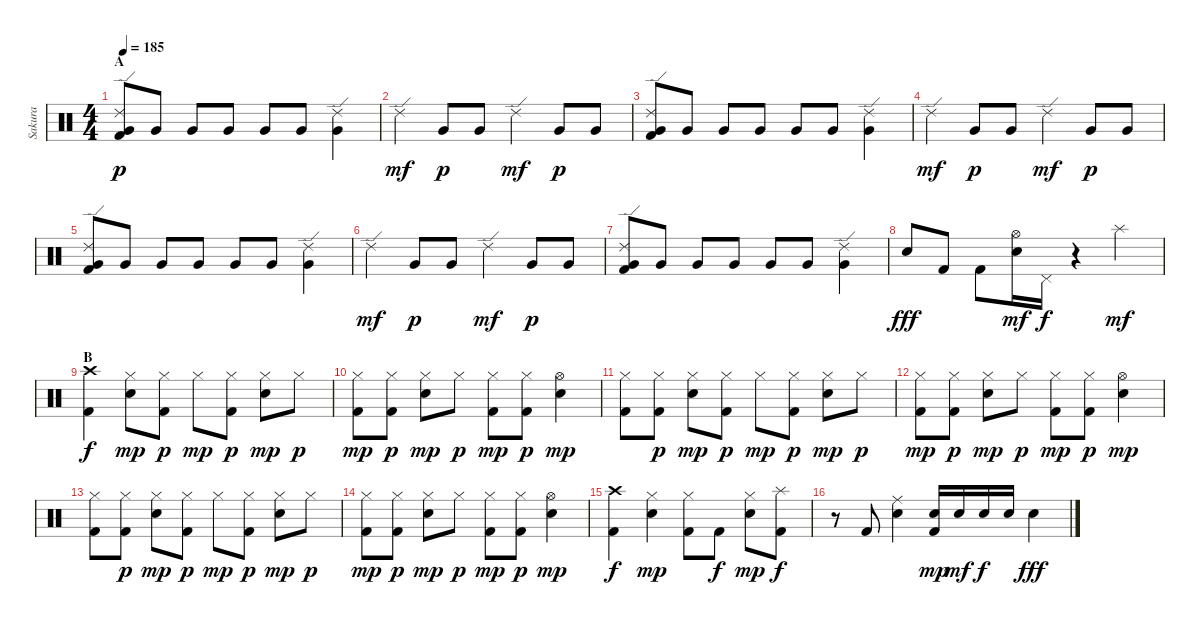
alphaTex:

\track ("Sakura" "Sakura") {instrument percussion}
\staff {score}
\articulation defaults
\ts (4 4)
\section ("" "A")
\tempo 185
\clef neutral
\ks c
("Ride (edge) 2" "Very Low Tom (hit)" "Kick (hit) 2").8{dy p} "Very Low Tom (hit)".8 "Very Low Tom (hit)".8 "Very Low Tom (hit)".8 "Very Low Tom (hit)".8 "Very Low Tom (hit)".8 ("Ride (edge) 2" "Very Low Tom (hit)").4 |
"Ride (edge) 2".4{dy mf} "Very Low Tom (hit)".8{dy p} "Very Low Tom (hit)".8 "Ride (edge) 2".4{dy mf} "Very Low Tom (hit)".8{dy p} "Very Low Tom (hit)".8 |
("Ride (edge) 2" "Very Low Tom (hit)" "Kick (hit) 2").8 "Very Low Tom (hit)".8 "Very Low Tom (hit)".8 "Very Low Tom (hit)".8 "Very Low Tom (hit)".8 "Very Low Tom (hit)".8 ("Ride (edge) 2" "Very Low Tom (hit)").4 |
"Ride (edge) 2".4{dy mf} "Very Low Tom (hit)".8{dy p} "Very Low Tom (hit)".8 "Ride (edge) 2".4{dy mf} "Very Low Tom (hit)".8{dy p} "Very Low Tom (hit)".8 |
("Ride (edge) 2" "Very Low Tom (hit)" "Kick (hit) 2").8 "Very Low Tom (hit)".8 "Very Low Tom (hit)".8 "Very Low Tom (hit)".8 "Very Low Tom (hit)".8 "Very Low Tom (hit)".8 ("Ride (edge) 2" "Very Low Tom (hit)").4 |
"Ride (edge) 2".4{dy mf} "Very Low Tom (hit)".8{dy p} "Very Low Tom (hit)".8 "Ride (edge) 2".4{dy mf} "Very Low Tom (hit)".8{dy p} "Very Low Tom (hit)".8 |
("Ride (edge) 2" "Very Low Tom (hit)" "Kick (hit) 2").8 "Very Low Tom (hit)".8 "Very Low Tom (hit)".8 "Very Low Tom (hit)".8 "Very Low Tom (hit)".8 "Very Low Tom (hit)".8 ("Ride (edge) 2" "Very Low Tom (hit)").4 |
"Electric Snare (hit)".8{dy fff} "Kick (hit) 2".8 "Kick (hit) 2".8 ("Hi-Hat (open)" "Electric Snare (hit)").16{dy mf} "Pedal Hi-Hat (hit)".16{dy f} r.4 "Splash (hit)".4{dy mf} |
\section ("" "B")
("Crash high (hit)" "Kick (hit) 2").4{dy f} ("Hi-Hat (closed)" "Electric Snare (hit)").8{dy mp} ("Hi-Hat (closed)" "Kick (hit) 2").8{dy p} "Hi-Hat (closed)".8{dy mp} ("Hi-Hat (closed)" "Kick (hit) 2").8{dy p} ("Hi-Hat (closed)" "Electric Snare (hit)").8{dy mp} "Hi-Hat (closed)".8{dy p} |
("Hi-Hat (closed)" "Kick (hit) 2").8{dy mp} ("Hi-Hat (closed)" "Kick (hit) 2").8{dy p} ("Hi-Hat (closed)" "Electric Snare (hit)").8{dy mp} "Hi-Hat (closed)".8{dy p} ("Hi-Hat (closed)" "Kick (hit) 2").8{dy mp} ("Hi-Hat (closed)" "Kick (hit) 2").8{dy p} ("Hi-Hat (open)" "Electric Snare (hit)").4{dy mp} |
("Hi-Hat (closed)" "Kick (hit) 2").8 ("Hi-Hat (closed)" "Kick (hit) 2").8{dy p} ("Hi-Hat (closed)" "Electric Snare (hit)").8{dy mp} ("Hi-Hat (closed)" "Kick (hit) 2").8{dy p} "Hi-Hat (closed)".8{dy mp} ("Hi-Hat (closed)" "Kick (hit) 2").8{dy p} ("Hi-Hat (closed)" "Electric Snare (hit)").8{dy mp} "Hi-Hat (closed)".8{dy p} |
("Hi-Hat (closed)" "Kick (hit) 2").8{dy mp} ("Hi-Hat (closed)" "Kick (hit) 2").8{dy p} ("Hi-Hat (closed)" "Electric Snare (hit)").8{dy mp} "Hi-Hat (closed)".8{dy p} ("Hi-Hat (closed)" "Kick (hit) 2").8{dy mp} ("Hi-Hat (closed)" "Kick (hit) 2").8{dy p} ("Hi-Hat (open)" "Electric Snare (hit)").4{dy mp} |
("Hi-Hat (closed)" "Kick (hit) 2").8 ("Hi-Hat (closed)" "Kick (hit) 2").8{dy p} ("Hi-Hat (closed)" "Electric Snare (hit)").8{dy mp} ("Hi-Hat (closed)" "Kick (hit) 2").8{dy p} "Hi-Hat (closed)".8{dy mp} ("Hi-Hat (closed)" "Kick (hit) 2").8{dy p} ("Hi-Hat (closed)" "Electric Snare (hit)").8{dy mp} "Hi-Hat (closed)".8{dy p} |
("Hi-Hat (closed)" "Kick (hit) 2").8{dy mp} ("Hi-Hat (closed)" "Kick (hit) 2").8{dy p} ("Hi-Hat (closed)" "Electric Snare (hit)").8{dy mp} "Hi-Hat (closed)".8{dy p} ("Hi-Hat (closed)" "Kick (hit) 2").8{dy mp} ("Hi-Hat (closed)" "Kick (hit) 2").8{dy p} ("Hi-Hat (open)" "Electric Snare (hit)").4{dy mp} |
("Crash high (hit)" "Kick (hit) 2").4{dy f} ("Hi-Hat (closed)" "Electric Snare (hit)").4{dy mp} ("Hi-Hat (closed)" "Kick (hit) 2").8 "Kick (hit) 2".8{dy f} ("Hi-Hat (closed)" "Electric Snare (hit)").8{dy mp} ("Splash (hit)" "Kick (hit) 2").8{dy f} |
r.8 "Kick (hit) 2".8 ("Ride (middle)" "Electric Snare (hit)").4 ("Electric Snare (hit)" "Kick (hit) 2").16{dy mp} "Electric Snare (hit)".16{dy mf} "Electric Snare (hit)".16{dy f} "Electric Snare (hit)".16 "Electric Snare (hit)".4{dy fff}
